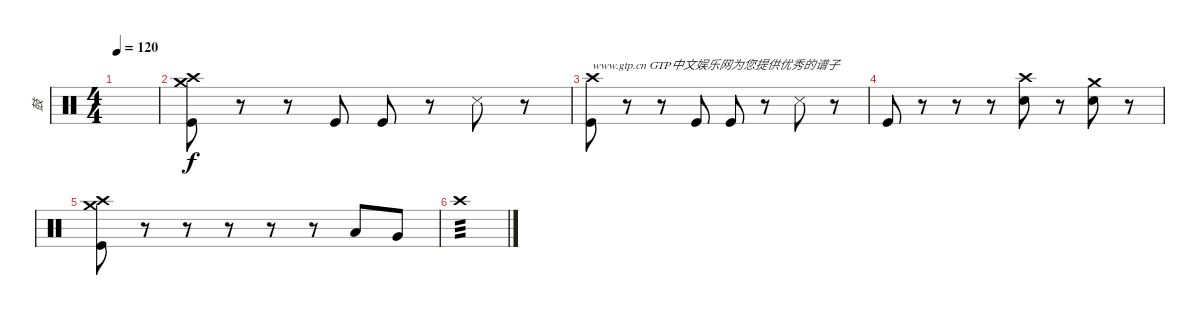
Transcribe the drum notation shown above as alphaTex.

\track ("鼓" "鼓") {instrument percussion}
\staff {score}
\articulation defaults
\ts (4 4)
\tempo 120
\tempo 70
\tempo 120
\clef neutral
\ks c
|
("Crash high (hit)" "Kick (hit)" "Crash medium (hit)").8 r.8 r.8 "Kick (hit)".8 "Kick (hit)".8 r.8 "Snare (side stick) 3".8 r.8 |
("Kick (hit)" "Crash high (hit)").8{txt "www.gtp.cn GTP中文娱乐网为您提供优秀的谱子"} r.8 r.8 "Kick (hit)".8 "Kick (hit)".8 r.8 "Snare (side stick) 3".8 r.8 |
"Kick (hit)".8 r.8 r.8 r.8 ("Crash high (hit)" "Electric Snare (hit)").8 r.8 ("Crash medium (hit)" "Electric Snare (hit)").8 r.8 |
("Crash medium (hit)" "Crash high (hit)" "Kick (hit)").8 r.8 r.8 r.8 r.8 r.8 "Low Floor Tom (hit)".8 "Very Low Tom (hit)".8 |
"Crash high (hit)".1{tp 3}
